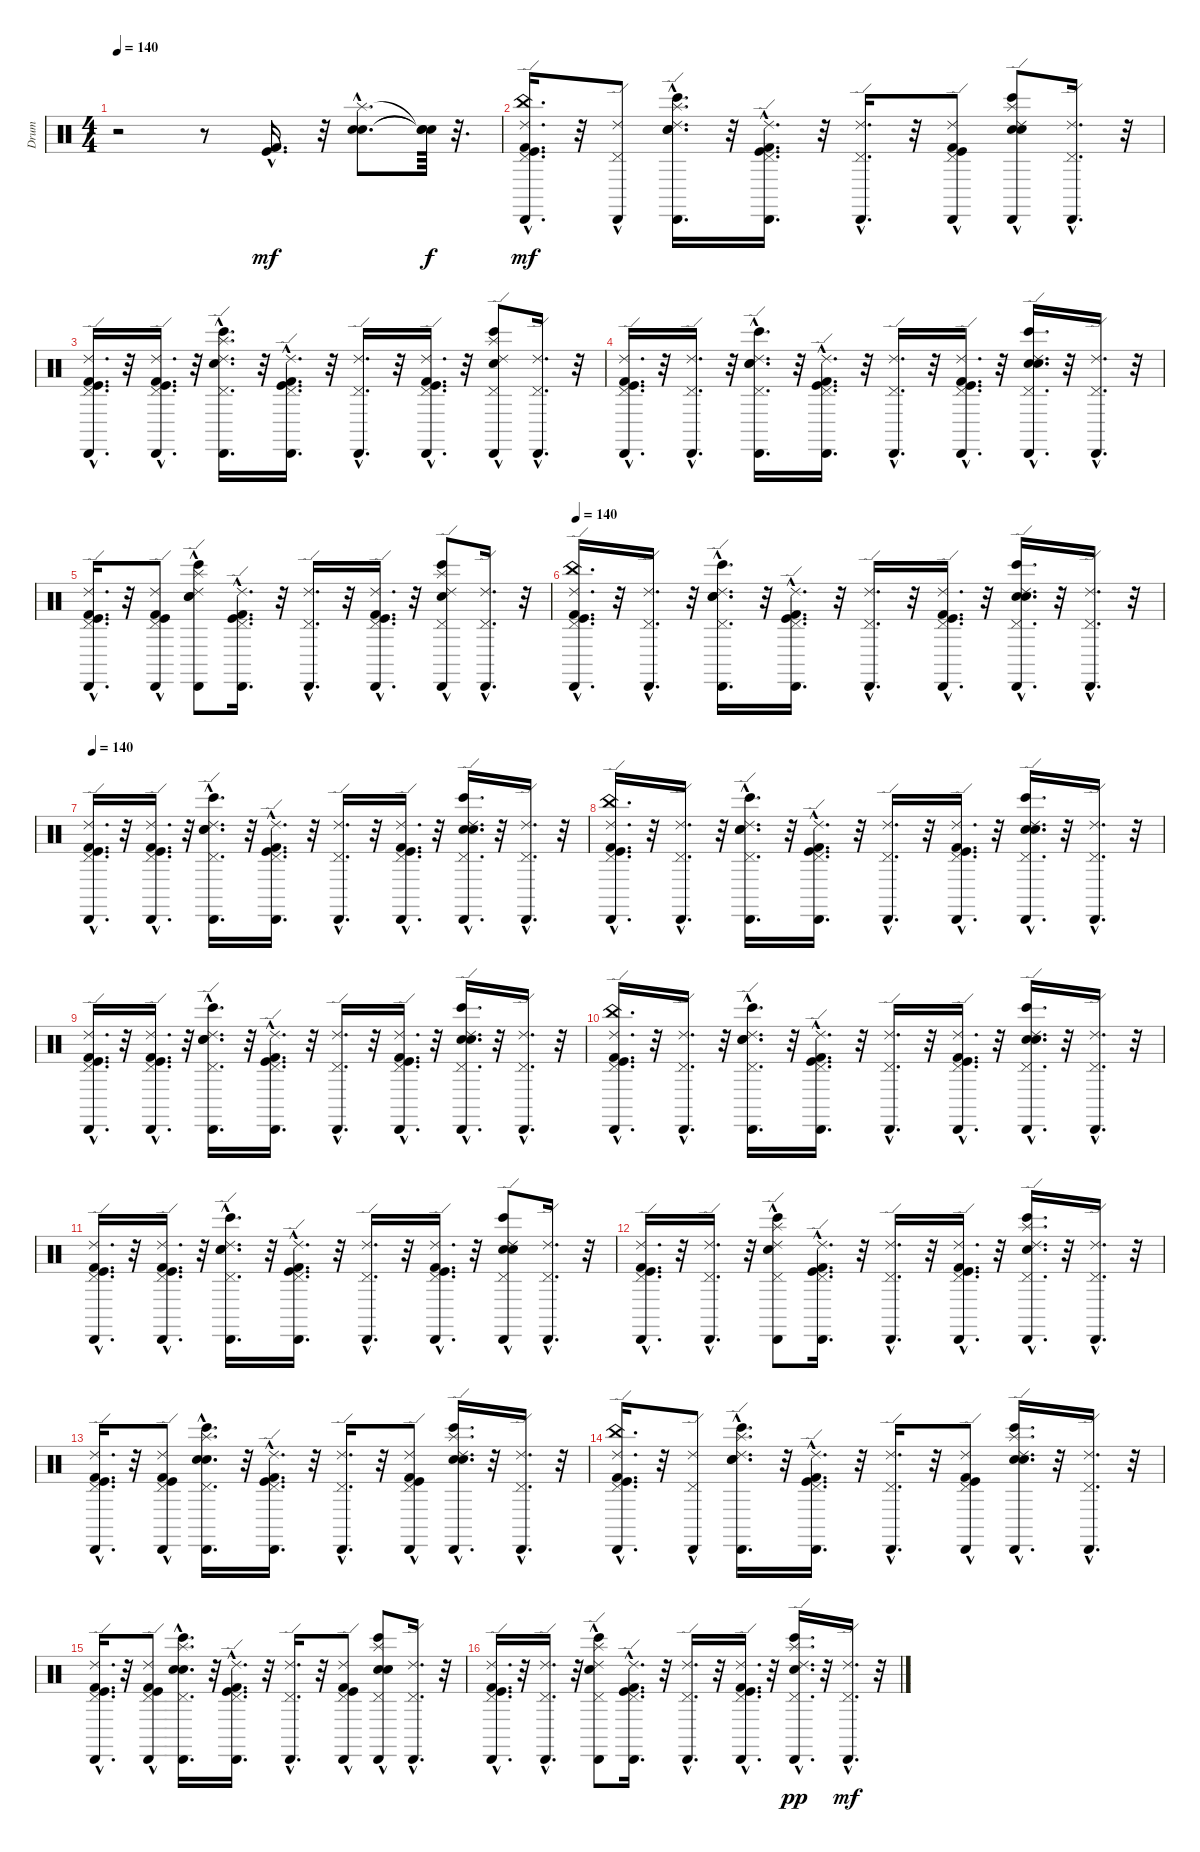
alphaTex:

\track ("Drum" "Drum") {instrument percussion}
\staff {score}
\articulation defaults
\ts (4 4)
\tempo 140
\clef neutral
\ks c
r.2{dy mf} r.8 ("Kick (hit) 2"{hac} "Kick (hit)"{hac}).16{d} r.32 ("Splash (hit)"{hac} "Electric Snare (hit)"{hac} "Snare (hit) 2"{hac}).8{d} ("Snare (hit)"{t} "Snare (hit)"{t} "Snare (hit)"{t}).64{dy f} r.32{d} |
("China (hit)"{hac} "Cabasa (hit)"{hac} "Ride (edge) 2"{hac} "Kick (hit) 2"{hac} "Kick (hit)"{hac} "Pedal Hi-Hat (hit)"{hac}).16{d dy mf} r.32 ("Cabasa (hit)"{hac} "Ride (edge) 2"{hac} "Pedal Hi-Hat (hit)"{hac}).8 ("Splash (hit)"{hac} "Bongo High (hit)"{hac} "Electric Snare (hit)"{hac} "Cabasa (hit)"{hac} "Ride (edge) 2"{hac} "Snare (hit) 2"{hac}).16{d} r.32 ("Cabasa (hit)"{hac} "Ride (edge) 2"{hac} "Kick (hit) 2"{hac} "Kick (hit)"{hac} "Pedal Hi-Hat (hit)"{hac}).16{d} r.32 ("Cabasa (hit)"{hac} "Ride (edge) 2"{hac} "Pedal Hi-Hat (hit)"{hac}).16{d} r.32 ("Cabasa (hit)"{hac} "Ride (edge) 2"{hac} "Kick (hit) 2"{hac} "Kick (hit)"{hac} "Pedal Hi-Hat (hit)"{hac}).8 ("Splash (hit)"{hac} "Bongo High (hit)"{hac} "Electric Snare (hit)"{hac} "Cabasa (hit)"{hac} "Ride (edge) 2"{hac} "Snare (hit) 2").8 ("Cabasa (hit)"{hac} "Ride (edge) 2"{hac} "Pedal Hi-Hat (hit)"{hac}).16{d} r.32 |
("Cabasa (hit)"{hac} "Ride (edge) 2"{hac} "Kick (hit) 2"{hac} "Pedal Hi-Hat (hit)"{hac} "Kick (hit)"{hac}).16{d} r.32 ("Cabasa (hit)"{hac} "Ride (edge) 2"{hac} "Kick (hit) 2"{hac} "Kick (hit)"{hac} "Pedal Hi-Hat (hit)"{hac}).16{d} r.32 ("Splash (hit)"{hac} "Electric Snare (hit)"{hac} "Bongo High (hit)"{hac} "Cabasa (hit)"{hac} "Ride (edge) 2"{hac} "Pedal Hi-Hat (hit)"{hac}).16{d} r.32 ("Cabasa (hit)"{hac} "Ride (edge) 2"{hac} "Kick (hit) 2"{hac} "Pedal Hi-Hat (hit)"{hac} "Kick (hit)"{hac}).16{d} r.32 ("Cabasa (hit)"{hac} "Ride (edge) 2"{hac} "Pedal Hi-Hat (hit)"{hac}).16{d} r.32 ("Cabasa (hit)"{hac} "Ride (edge) 2"{hac} "Kick (hit) 2"{hac} "Pedal Hi-Hat (hit)"{hac} "Kick (hit)"{hac}).16{d} r.32 ("Splash (hit)" "Electric Snare (hit)"{hac} "Bongo High (hit)"{hac} "Cabasa (hit)"{hac} "Ride (edge) 2"{hac} "Pedal Hi-Hat (hit)"{hac}).8 ("Cabasa (hit)"{hac} "Ride (edge) 2"{hac} "Pedal Hi-Hat (hit)"{hac}).16{d} r.32 |
("Pedal Hi-Hat (hit)"{hac} "Kick (hit)"{hac} "Kick (hit) 2"{hac} "Ride (edge) 2"{hac} "Cabasa (hit)"{hac}).16{d} r.32 ("Pedal Hi-Hat (hit)"{hac} "Ride (edge) 2"{hac} "Cabasa (hit)"{hac}).16{d} r.32 ("Pedal Hi-Hat (hit)"{hac} "Snare (hit) 2"{hac} "Ride (edge) 2"{hac} "Cabasa (hit)"{hac} "Electric Snare (hit)"{hac} "Bongo High (hit)"{hac}).16{d} r.32 ("Pedal Hi-Hat (hit)"{hac} "Kick (hit)"{hac} "Kick (hit) 2"{hac} "Ride (edge) 2"{hac} "Cabasa (hit)"{hac}).16{d} r.32 ("Pedal Hi-Hat (hit)"{hac} "Ride (edge) 2"{hac} "Cabasa (hit)"{hac}).16{d} r.32 ("Pedal Hi-Hat (hit)"{hac} "Kick (hit)"{hac} "Kick (hit) 2"{hac} "Ride (edge) 2"{hac} "Cabasa (hit)"{hac}).16{d} r.32 ("Pedal Hi-Hat (hit)"{hac} "Snare (hit) 2"{hac} "Ride (edge) 2"{hac} "Cabasa (hit)"{hac} "Electric Snare (hit)"{hac} "Bongo High (hit)"{hac}).16{d} r.32 ("Pedal Hi-Hat (hit)"{hac} "Ride (edge) 2"{hac} "Cabasa (hit)"{hac}).16{d} r.32 |
("Kick (hit)"{hac} "Kick (hit) 2"{hac} "Ride (edge) 2"{hac} "Cabasa (hit)"{hac} "Pedal Hi-Hat (hit)"{hac}).16{d} r.32 ("Kick (hit) 2"{hac} "Kick (hit)"{hac} "Pedal Hi-Hat (hit)"{hac} "Cabasa (hit)"{hac} "Ride (edge) 2"{hac}).8 ("Splash (hit)"{hac} "Cabasa (hit)"{hac} "Electric Snare (hit)" "Snare (hit) 2"{hac} "Bongo High (hit)"{hac} "Ride (edge) 2"{hac}).8 ("Cabasa (hit)"{hac} "Ride (edge) 2"{hac} "Pedal Hi-Hat (hit)"{hac} "Kick (hit)"{hac} "Kick (hit) 2"{hac}).16{d} r.32 ("Pedal Hi-Hat (hit)"{hac} "Ride (edge) 2"{hac} "Cabasa (hit)"{hac}).16{d} r.32 ("Cabasa (hit)"{hac} "Kick (hit) 2"{hac} "Pedal Hi-Hat (hit)"{hac} "Ride (edge) 2"{hac} "Kick (hit)"{hac}).16{d} r.32 ("Snare (hit) 2"{hac} "Splash (hit)" "Pedal Hi-Hat (hit)"{hac} "Bongo High (hit)"{hac} "Ride (edge) 2"{hac} "Cabasa (hit)"{hac}).8 ("Cabasa (hit)"{hac} "Pedal Hi-Hat (hit)"{hac} "Ride (edge) 2"{hac}).16{d} r.32 |
\tempo 140
("Pedal Hi-Hat (hit)"{hac} "Kick (hit)"{hac} "Kick (hit) 2"{hac} "Ride (edge) 2"{hac} "Cabasa (hit)"{hac} "China (hit)"{hac}).16{d} r.32 ("Pedal Hi-Hat (hit)"{hac} "Ride (edge) 2"{hac} "Cabasa (hit)"{hac}).16{d} r.32 ("Pedal Hi-Hat (hit)"{hac} "Snare (hit) 2"{hac} "Ride (edge) 2"{hac} "Cabasa (hit)"{hac} "Electric Snare (hit)"{hac} "Bongo High (hit)"{hac}).16{d} r.32 ("Pedal Hi-Hat (hit)"{hac} "Kick (hit)"{hac} "Kick (hit) 2"{hac} "Ride (edge) 2"{hac} "Cabasa (hit)"{hac}).16{d} r.32 ("Pedal Hi-Hat (hit)"{hac} "Ride (edge) 2"{hac} "Cabasa (hit)"{hac}).16{d} r.32 ("Pedal Hi-Hat (hit)"{hac} "Kick (hit)"{hac} "Kick (hit) 2"{hac} "Ride (edge) 2"{hac} "Cabasa (hit)"{hac}).16{d} r.32 ("Pedal Hi-Hat (hit)"{hac} "Snare (hit) 2"{hac} "Ride (edge) 2"{hac} "Cabasa (hit)"{hac} "Electric Snare (hit)"{hac} "Bongo High (hit)"{hac}).16{d} r.32 ("Pedal Hi-Hat (hit)"{hac} "Ride (edge) 2"{hac} "Cabasa (hit)"{hac}).16{d} r.32 |
\tempo 140
("Kick (hit)"{hac} "Pedal Hi-Hat (hit)"{hac} "Kick (hit) 2"{hac} "Ride (edge) 2"{hac} "Cabasa (hit)"{hac}).16{d} r.32 ("Pedal Hi-Hat (hit)"{hac} "Kick (hit)"{hac} "Kick (hit) 2"{hac} "Ride (edge) 2"{hac} "Cabasa (hit)"{hac}).16{d} r.32 ("Snare (hit) 2"{hac} "Pedal Hi-Hat (hit)"{hac} "Ride (edge) 2"{hac} "Cabasa (hit)"{hac} "Bongo High (hit)"{hac} "Electric Snare (hit)"{hac}).16{d} r.32 ("Kick (hit)"{hac} "Pedal Hi-Hat (hit)"{hac} "Kick (hit) 2"{hac} "Ride (edge) 2"{hac} "Cabasa (hit)"{hac}).16{d} r.32 ("Pedal Hi-Hat (hit)"{hac} "Ride (edge) 2"{hac} "Cabasa (hit)"{hac}).16{d} r.32 ("Kick (hit)"{hac} "Pedal Hi-Hat (hit)"{hac} "Kick (hit) 2"{hac} "Ride (edge) 2"{hac} "Cabasa (hit)"{hac}).16{d} r.32 ("Snare (hit) 2"{hac} "Pedal Hi-Hat (hit)"{hac} "Ride (edge) 2"{hac} "Cabasa (hit)"{hac} "Bongo High (hit)"{hac} "Electric Snare (hit)"{hac}).16{d} r.32 ("Pedal Hi-Hat (hit)"{hac} "Ride (edge) 2"{hac} "Cabasa (hit)"{hac}).16{d} r.32 |
("Pedal Hi-Hat (hit)"{hac} "Kick (hit)"{hac} "Kick (hit) 2"{hac} "Ride (edge) 2"{hac} "Cabasa (hit)"{hac} "China (hit)"{hac}).16{d} r.32 ("Pedal Hi-Hat (hit)"{hac} "Ride (edge) 2"{hac} "Cabasa (hit)"{hac}).16{d} r.32 ("Pedal Hi-Hat (hit)"{hac} "Snare (hit) 2"{hac} "Ride (edge) 2"{hac} "Cabasa (hit)"{hac} "Electric Snare (hit)"{hac} "Bongo High (hit)"{hac}).16{d} r.32 ("Pedal Hi-Hat (hit)"{hac} "Kick (hit)"{hac} "Kick (hit) 2"{hac} "Ride (edge) 2"{hac} "Cabasa (hit)"{hac}).16{d} r.32 ("Pedal Hi-Hat (hit)"{hac} "Ride (edge) 2"{hac} "Cabasa (hit)"{hac}).16{d} r.32 ("Pedal Hi-Hat (hit)"{hac} "Kick (hit)"{hac} "Kick (hit) 2"{hac} "Ride (edge) 2"{hac} "Cabasa (hit)"{hac}).16{d} r.32 ("Pedal Hi-Hat (hit)"{hac} "Snare (hit) 2"{hac} "Ride (edge) 2"{hac} "Cabasa (hit)"{hac} "Electric Snare (hit)"{hac} "Bongo High (hit)"{hac}).16{d} r.32 ("Pedal Hi-Hat (hit)"{hac} "Ride (edge) 2"{hac} "Cabasa (hit)"{hac}).16{d} r.32 |
("Kick (hit)"{hac} "Pedal Hi-Hat (hit)"{hac} "Kick (hit) 2"{hac} "Ride (edge) 2"{hac} "Cabasa (hit)"{hac}).16{d} r.32 ("Pedal Hi-Hat (hit)"{hac} "Kick (hit)"{hac} "Kick (hit) 2"{hac} "Ride (edge) 2"{hac} "Cabasa (hit)"{hac}).16{d} r.32 ("Snare (hit) 2"{hac} "Pedal Hi-Hat (hit)"{hac} "Ride (edge) 2"{hac} "Cabasa (hit)"{hac} "Bongo High (hit)"{hac} "Electric Snare (hit)"{hac}).16{d} r.32 ("Kick (hit)"{hac} "Pedal Hi-Hat (hit)"{hac} "Kick (hit) 2"{hac} "Ride (edge) 2"{hac} "Cabasa (hit)"{hac}).16{d} r.32 ("Pedal Hi-Hat (hit)"{hac} "Ride (edge) 2"{hac} "Cabasa (hit)"{hac}).16{d} r.32 ("Kick (hit)"{hac} "Pedal Hi-Hat (hit)"{hac} "Kick (hit) 2"{hac} "Ride (edge) 2"{hac} "Cabasa (hit)"{hac}).16{d} r.32 ("Snare (hit) 2"{hac} "Pedal Hi-Hat (hit)"{hac} "Ride (edge) 2"{hac} "Cabasa (hit)"{hac} "Bongo High (hit)"{hac} "Electric Snare (hit)"{hac}).16{d} r.32 ("Pedal Hi-Hat (hit)"{hac} "Ride (edge) 2"{hac} "Cabasa (hit)"{hac}).16{d} r.32 |
("Pedal Hi-Hat (hit)"{hac} "Kick (hit)"{hac} "Kick (hit) 2"{hac} "Ride (edge) 2"{hac} "Cabasa (hit)"{hac} "China (hit)"{hac}).16{d} r.32 ("Pedal Hi-Hat (hit)"{hac} "Ride (edge) 2"{hac} "Cabasa (hit)"{hac}).16{d} r.32 ("Pedal Hi-Hat (hit)"{hac} "Snare (hit) 2"{hac} "Ride (edge) 2"{hac} "Cabasa (hit)"{hac} "Electric Snare (hit)"{hac} "Bongo High (hit)"{hac}).16{d} r.32 ("Pedal Hi-Hat (hit)"{hac} "Kick (hit)"{hac} "Kick (hit) 2"{hac} "Ride (edge) 2"{hac} "Cabasa (hit)"{hac}).16{d} r.32 ("Pedal Hi-Hat (hit)"{hac} "Ride (edge) 2"{hac} "Cabasa (hit)"{hac}).16{d} r.32 ("Pedal Hi-Hat (hit)"{hac} "Kick (hit)"{hac} "Kick (hit) 2"{hac} "Ride (edge) 2"{hac} "Cabasa (hit)"{hac}).16{d} r.32 ("Pedal Hi-Hat (hit)"{hac} "Snare (hit) 2"{hac} "Ride (edge) 2"{hac} "Cabasa (hit)"{hac} "Electric Snare (hit)"{hac} "Bongo High (hit)"{hac}).16{d} r.32 ("Pedal Hi-Hat (hit)"{hac} "Ride (edge) 2"{hac} "Cabasa (hit)"{hac}).16{d} r.32 |
("Kick (hit)"{hac} "Pedal Hi-Hat (hit)"{hac} "Kick (hit) 2"{hac} "Ride (edge) 2"{hac} "Cabasa (hit)"{hac}).16{d} r.32 ("Pedal Hi-Hat (hit)"{hac} "Kick (hit)"{hac} "Kick (hit) 2"{hac} "Ride (edge) 2"{hac} "Cabasa (hit)"{hac}).16{d} r.32 ("Snare (hit) 2"{hac} "Pedal Hi-Hat (hit)"{hac} "Ride (edge) 2"{hac} "Cabasa (hit)"{hac} "Bongo High (hit)"{hac} "Electric Snare (hit)"{hac}).16{d} r.32 ("Kick (hit)"{hac} "Pedal Hi-Hat (hit)"{hac} "Kick (hit) 2"{hac} "Ride (edge) 2"{hac} "Cabasa (hit)"{hac}).16{d} r.32 ("Pedal Hi-Hat (hit)"{hac} "Ride (edge) 2"{hac} "Cabasa (hit)"{hac}).16{d} r.32 ("Kick (hit)"{hac} "Pedal Hi-Hat (hit)"{hac} "Kick (hit) 2"{hac} "Ride (edge) 2"{hac} "Cabasa (hit)"{hac}).16{d} r.32 ("Snare (hit) 2"{hac} "Pedal Hi-Hat (hit)"{hac} "Ride (edge) 2"{hac} "Cabasa (hit)"{hac} "Bongo High (hit)"{hac} "Electric Snare (hit)").8 ("Pedal Hi-Hat (hit)"{hac} "Ride (edge) 2"{hac} "Cabasa (hit)"{hac}).16{d} r.32 |
("Cabasa (hit)"{hac} "Ride (edge) 2"{hac} "Kick (hit) 2"{hac} "Pedal Hi-Hat (hit)"{hac} "Kick (hit)"{hac}).16{d} r.32 ("Cabasa (hit)"{hac} "Pedal Hi-Hat (hit)"{hac} "Ride (edge) 2"{hac}).16{d} r.32 ("Snare (hit) 2" "Cabasa (hit)"{hac} "Splash (hit)"{hac} "Pedal Hi-Hat (hit)"{hac} "Ride (edge) 2"{hac} "Bongo High (hit)"{hac}).8 ("Cabasa (hit)"{hac} "Ride (edge) 2"{hac} "Kick (hit) 2"{hac} "Kick (hit)"{hac} "Pedal Hi-Hat (hit)"{hac}).16{d} r.32 ("Ride (edge) 2"{hac} "Pedal Hi-Hat (hit)"{hac} "Cabasa (hit)"{hac}).16{d} r.32 ("Ride (edge) 2"{hac} "Pedal Hi-Hat (hit)"{hac} "Cabasa (hit)"{hac} "Kick (hit) 2"{hac} "Kick (hit)"{hac}).16{d} r.32 ("Electric Snare (hit)"{hac} "Splash (hit)"{hac} "Bongo High (hit)"{hac} "Ride (edge) 2"{hac} "Pedal Hi-Hat (hit)"{hac} "Cabasa (hit)"{hac}).16{d} r.32 ("Ride (edge) 2"{hac} "Cabasa (hit)"{hac} "Pedal Hi-Hat (hit)"{hac}).16{d} r.32 |
("Ride (edge) 2"{hac} "Kick (hit) 2"{hac} "Cabasa (hit)"{hac} "Kick (hit)"{hac} "Pedal Hi-Hat (hit)"{hac}).16{d} r.32 ("Cabasa (hit)"{hac} "Ride (edge) 2"{hac} "Pedal Hi-Hat (hit)"{hac} "Kick (hit)"{hac} "Kick (hit) 2"{hac}).8 ("Electric Snare (hit)"{hac} "Bongo High (hit)"{hac} "Splash (hit)"{hac} "Snare (hit) 2"{hac} "Pedal Hi-Hat (hit)"{hac} "Cabasa (hit)"{hac}).16{d} r.32 ("Ride (edge) 2"{hac} "Kick (hit) 2"{hac} "Cabasa (hit)"{hac} "Kick (hit)"{hac} "Pedal Hi-Hat (hit)"{hac}).16{d} r.32 ("Cabasa (hit)"{hac} "Ride (edge) 2"{hac} "Pedal Hi-Hat (hit)"{hac}).16{d} r.32 ("Cabasa (hit)"{hac} "Ride (edge) 2"{hac} "Kick (hit)"{hac} "Pedal Hi-Hat (hit)"{hac} "Kick (hit) 2"{hac}).8 ("Bongo High (hit)"{hac} "Electric Snare (hit)"{hac} "Cabasa (hit)"{hac} "Splash (hit)"{hac} "Snare (hit) 2"{hac} "Ride (edge) 2"{hac}).16{d} r.32 ("Cabasa (hit)"{hac} "Ride (edge) 2"{hac} "Pedal Hi-Hat (hit)"{hac}).16{d} r.32 |
("China (hit)"{hac} "Cabasa (hit)"{hac} "Ride (edge) 2"{hac} "Kick (hit) 2"{hac} "Kick (hit)"{hac} "Pedal Hi-Hat (hit)"{hac}).16{d} r.32 ("Cabasa (hit)"{hac} "Ride (edge) 2"{hac} "Pedal Hi-Hat (hit)"{hac}).8 ("Splash (hit)"{hac} "Bongo High (hit)"{hac} "Electric Snare (hit)"{hac} "Cabasa (hit)"{hac} "Ride (edge) 2"{hac} "Snare (hit) 2"{hac}).16{d} r.32 ("Cabasa (hit)"{hac} "Ride (edge) 2"{hac} "Kick (hit) 2"{hac} "Kick (hit)"{hac} "Pedal Hi-Hat (hit)"{hac}).16{d} r.32 ("Cabasa (hit)"{hac} "Ride (edge) 2"{hac} "Pedal Hi-Hat (hit)"{hac}).16{d} r.32 ("Cabasa (hit)"{hac} "Ride (edge) 2"{hac} "Kick (hit) 2"{hac} "Kick (hit)"{hac} "Pedal Hi-Hat (hit)"{hac}).8 ("Splash (hit)"{hac} "Bongo High (hit)"{hac} "Electric Snare (hit)"{hac} "Cabasa (hit)"{hac} "Ride (edge) 2"{hac} "Snare (hit) 2"{hac}).16{d} r.32 ("Cabasa (hit)"{hac} "Ride (edge) 2"{hac} "Pedal Hi-Hat (hit)"{hac}).16{d} r.32 |
("Kick (hit)"{hac} "Cabasa (hit)"{hac} "Ride (edge) 2"{hac} "Kick (hit) 2"{hac} "Pedal Hi-Hat (hit)"{hac}).16{d} r.32 ("Cabasa (hit)"{hac} "Kick (hit)"{hac} "Ride (edge) 2"{hac} "Pedal Hi-Hat (hit)"{hac} "Kick (hit) 2"{hac}).8 ("Snare (hit) 2"{hac} "Cabasa (hit)"{hac} "Splash (hit)"{hac} "Electric Snare (hit)"{hac} "Bongo High (hit)"{hac} "Pedal Hi-Hat (hit)"{hac}).16{d} r.32 ("Kick (hit)"{hac} "Ride (edge) 2"{hac} "Pedal Hi-Hat (hit)"{hac} "Cabasa (hit)"{hac} "Kick (hit) 2"{hac}).16{d} r.32 ("Ride (edge) 2"{hac} "Pedal Hi-Hat (hit)"{hac} "Cabasa (hit)"{hac}).16{d} r.32 ("Pedal Hi-Hat (hit)"{hac} "Ride (edge) 2"{hac} "Cabasa (hit)"{hac} "Kick (hit) 2"{hac} "Kick (hit)"{hac}).8 ("Snare (hit) 2" "Pedal Hi-Hat (hit)"{hac} "Cabasa (hit)"{hac} "Splash (hit)"{hac} "Electric Snare (hit)"{hac} "Bongo High (hit)"{hac}).8 ("Cabasa (hit)"{hac} "Pedal Hi-Hat (hit)"{hac} "Ride (edge) 2"{hac}).16{d} r.32 |
("Kick (hit)"{hac} "Pedal Hi-Hat (hit)"{hac} "Kick (hit) 2"{hac} "Ride (edge) 2"{hac} "Cabasa (hit)"{hac}).16{d} r.32 ("Ride (edge) 2"{hac} "Pedal Hi-Hat (hit)"{hac} "Cabasa (hit)"{hac}).16{d} r.32 ("Electric Snare (hit)" "Bongo High (hit)"{hac} "Ride (edge) 2"{hac} "Pedal Hi-Hat (hit)"{hac} "Splash (hit)"{hac} "Cabasa (hit)"{hac}).8 ("Pedal Hi-Hat (hit)"{hac} "Kick (hit)"{hac} "Kick (hit) 2"{hac} "Ride (edge) 2"{hac} "Cabasa (hit)"{hac}).16{d} r.32 ("Cabasa (hit)"{hac} "Pedal Hi-Hat (hit)"{hac} "Ride (edge) 2"{hac}).16{d} r.32 ("Kick (hit)"{hac} "Kick (hit) 2"{hac} "Cabasa (hit)"{hac} "Pedal Hi-Hat (hit)"{hac} "Ride (edge) 2"{hac}).16{d} r.32 ("Snare (hit) 2"{hac} "Cabasa (hit)"{hac} "Pedal Hi-Hat (hit)"{hac} "Ride (edge) 2"{hac} "Bongo High (hit)"{hac} "Splash (hit)"{hac}).16{d dy pp} r.32 ("Pedal Hi-Hat (hit)"{hac} "Cabasa (hit)"{hac} "Ride (edge) 2"{hac}).16{d dy mf} r.32
